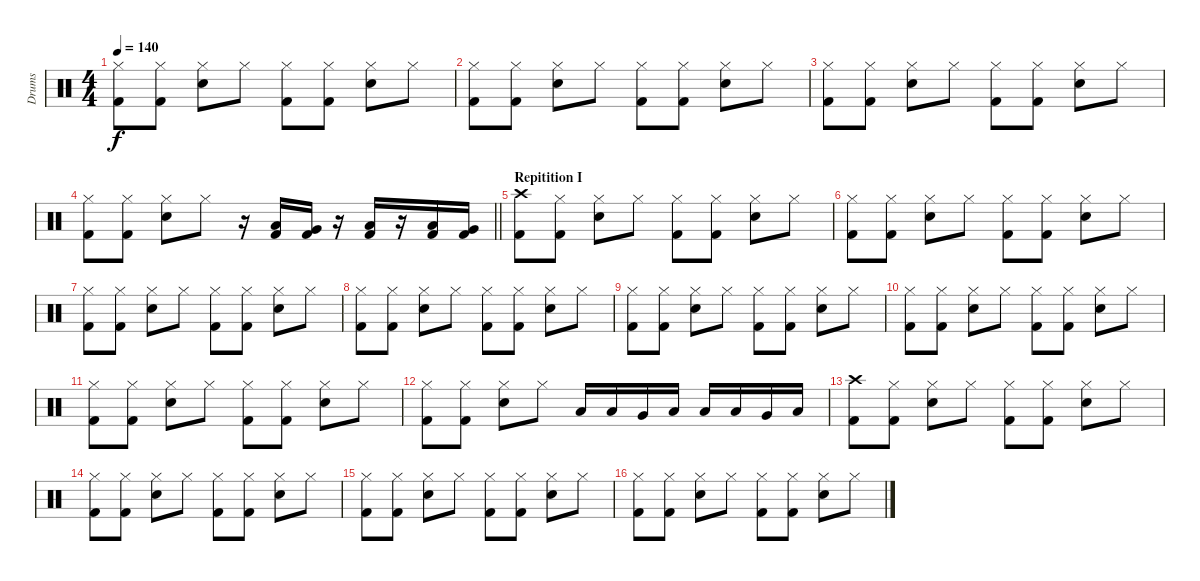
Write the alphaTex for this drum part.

\track ("Drums" "Drums") {instrument percussion}
\staff {score}
\articulation defaults
\ts (4 4)
\tempo 140
\clef neutral
\ks c
("Hi-Hat (closed)" "Kick (hit) 2").8{dy f} ("Hi-Hat (closed)" "Kick (hit) 2").8 ("Hi-Hat (closed)" "Snare (hit) 2").8 "Hi-Hat (closed)".8 ("Hi-Hat (closed)" "Kick (hit) 2").8 ("Hi-Hat (closed)" "Kick (hit) 2").8 ("Hi-Hat (closed)" "Snare (hit) 2").8 "Hi-Hat (closed)".8 |
("Hi-Hat (closed)" "Kick (hit) 2").8 ("Hi-Hat (closed)" "Kick (hit) 2").8 ("Hi-Hat (closed)" "Snare (hit) 2").8 "Hi-Hat (closed)".8 ("Hi-Hat (closed)" "Kick (hit) 2").8 ("Hi-Hat (closed)" "Kick (hit) 2").8 ("Hi-Hat (closed)" "Snare (hit) 2").8 "Hi-Hat (closed)".8 |
("Hi-Hat (closed)" "Kick (hit) 2").8 ("Hi-Hat (closed)" "Kick (hit) 2").8 ("Hi-Hat (closed)" "Snare (hit) 2").8 "Hi-Hat (closed)".8 ("Hi-Hat (closed)" "Kick (hit) 2").8 ("Hi-Hat (closed)" "Kick (hit) 2").8 ("Hi-Hat (closed)" "Snare (hit) 2").8 "Hi-Hat (closed)".8 |
\barLineRight lightlight
("Hi-Hat (closed)" "Kick (hit) 2").8 ("Hi-Hat (closed)" "Kick (hit) 2").8 ("Hi-Hat (closed)" "Snare (hit) 2").8 "Hi-Hat (closed)".8 r.16 ("Low Tom (hit)" "Kick (hit) 2").16 ("Very Low Tom (hit)" "Kick (hit) 2").16 r.16 ("Low Tom (hit)" "Kick (hit) 2").16 r.16 ("Low Tom (hit)" "Kick (hit) 2").16 ("Very Low Tom (hit)" "Kick (hit) 2").16 |
\section ("" "Repitition I")
("Crash high (hit)" "Kick (hit) 2").8 ("Hi-Hat (closed)" "Kick (hit) 2").8 ("Hi-Hat (closed)" "Snare (hit) 2").8 "Hi-Hat (closed)".8 ("Hi-Hat (closed)" "Kick (hit) 2").8 ("Hi-Hat (closed)" "Kick (hit) 2").8 ("Hi-Hat (closed)" "Snare (hit) 2").8 "Hi-Hat (closed)".8 |
("Hi-Hat (closed)" "Kick (hit) 2").8 ("Hi-Hat (closed)" "Kick (hit) 2").8 ("Hi-Hat (closed)" "Snare (hit) 2").8 "Hi-Hat (closed)".8 ("Hi-Hat (closed)" "Kick (hit) 2").8 ("Hi-Hat (closed)" "Kick (hit) 2").8 ("Hi-Hat (closed)" "Snare (hit) 2").8 "Hi-Hat (closed)".8 |
("Hi-Hat (closed)" "Kick (hit) 2").8 ("Hi-Hat (closed)" "Kick (hit) 2").8 ("Hi-Hat (closed)" "Snare (hit) 2").8 "Hi-Hat (closed)".8 ("Hi-Hat (closed)" "Kick (hit) 2").8 ("Hi-Hat (closed)" "Kick (hit) 2").8 ("Hi-Hat (closed)" "Snare (hit) 2").8 "Hi-Hat (closed)".8 |
("Hi-Hat (closed)" "Kick (hit) 2").8 ("Hi-Hat (closed)" "Kick (hit) 2").8 ("Hi-Hat (closed)" "Snare (hit) 2").8 "Hi-Hat (closed)".8 ("Hi-Hat (closed)" "Kick (hit) 2").8 ("Hi-Hat (closed)" "Kick (hit) 2").8 ("Hi-Hat (closed)" "Snare (hit) 2").8 "Hi-Hat (closed)".8 |
("Hi-Hat (closed)" "Kick (hit) 2").8 ("Hi-Hat (closed)" "Kick (hit) 2").8 ("Hi-Hat (closed)" "Snare (hit) 2").8 "Hi-Hat (closed)".8 ("Hi-Hat (closed)" "Kick (hit) 2").8 ("Hi-Hat (closed)" "Kick (hit) 2").8 ("Hi-Hat (closed)" "Snare (hit) 2").8 "Hi-Hat (closed)".8 |
("Hi-Hat (closed)" "Kick (hit) 2").8 ("Hi-Hat (closed)" "Kick (hit) 2").8 ("Hi-Hat (closed)" "Snare (hit) 2").8 "Hi-Hat (closed)".8 ("Hi-Hat (closed)" "Kick (hit) 2").8 ("Hi-Hat (closed)" "Kick (hit) 2").8 ("Hi-Hat (closed)" "Snare (hit) 2").8 "Hi-Hat (closed)".8 |
("Hi-Hat (closed)" "Kick (hit) 2").8 ("Hi-Hat (closed)" "Kick (hit) 2").8 ("Hi-Hat (closed)" "Snare (hit) 2").8 "Hi-Hat (closed)".8 ("Hi-Hat (closed)" "Kick (hit) 2").8 ("Hi-Hat (closed)" "Kick (hit) 2").8 ("Hi-Hat (closed)" "Snare (hit) 2").8 "Hi-Hat (closed)".8 |
("Hi-Hat (closed)" "Kick (hit) 2").8 ("Hi-Hat (closed)" "Kick (hit) 2").8 ("Hi-Hat (closed)" "Snare (hit) 2").8 "Hi-Hat (closed)".8 "Low Tom (hit)".16 "Low Tom (hit)".16 "Very Low Tom (hit)".16 "Low Floor Tom (hit)".16 "Low Tom (hit)".16 "Low Tom (hit)".16 "Very Low Tom (hit)".16 "Low Floor Tom (hit)".16 |
("Crash high (hit)" "Kick (hit) 2").8 ("Hi-Hat (closed)" "Kick (hit) 2").8 ("Hi-Hat (closed)" "Snare (hit) 2").8 "Hi-Hat (closed)".8 ("Hi-Hat (closed)" "Kick (hit) 2").8 ("Hi-Hat (closed)" "Kick (hit) 2").8 ("Hi-Hat (closed)" "Snare (hit) 2").8 "Hi-Hat (closed)".8 |
("Hi-Hat (closed)" "Kick (hit) 2").8 ("Hi-Hat (closed)" "Kick (hit) 2").8 ("Hi-Hat (closed)" "Snare (hit) 2").8 "Hi-Hat (closed)".8 ("Hi-Hat (closed)" "Kick (hit) 2").8 ("Hi-Hat (closed)" "Kick (hit) 2").8 ("Hi-Hat (closed)" "Snare (hit) 2").8 "Hi-Hat (closed)".8 |
("Hi-Hat (closed)" "Kick (hit) 2").8 ("Hi-Hat (closed)" "Kick (hit) 2").8 ("Hi-Hat (closed)" "Snare (hit) 2").8 "Hi-Hat (closed)".8 ("Hi-Hat (closed)" "Kick (hit) 2").8 ("Hi-Hat (closed)" "Kick (hit) 2").8 ("Hi-Hat (closed)" "Snare (hit) 2").8 "Hi-Hat (closed)".8 |
("Hi-Hat (closed)" "Kick (hit) 2").8 ("Hi-Hat (closed)" "Kick (hit) 2").8 ("Hi-Hat (closed)" "Snare (hit) 2").8 "Hi-Hat (closed)".8 ("Hi-Hat (closed)" "Kick (hit) 2").8 ("Hi-Hat (closed)" "Kick (hit) 2").8 ("Hi-Hat (closed)" "Snare (hit) 2").8 "Hi-Hat (closed)".8
